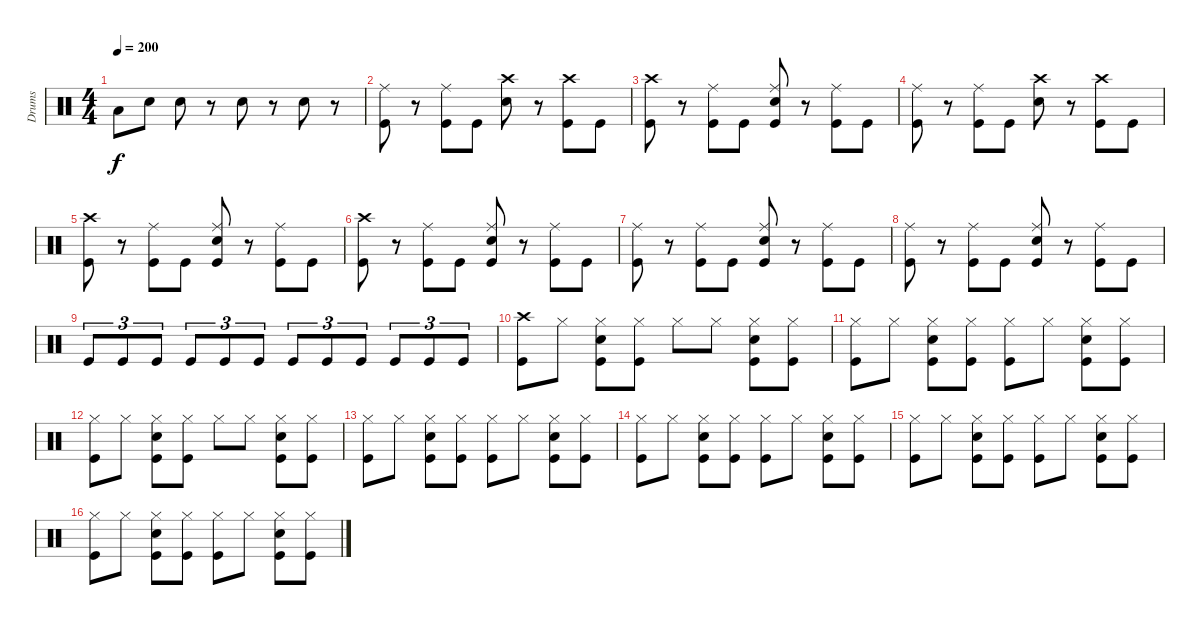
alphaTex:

\track ("Drums" "Drums") {instrument percussion}
\staff {score}
\articulation defaults
\ts (4 4)
\tempo 200
\clef neutral
\ks c "Low Tom (hit)".8{dy f} "Snare (hit) 2".8 "Snare (hit) 2".8
r.8 "Snare (hit) 2".8 r.8 "Snare (hit) 2".8 r.8 |
("Ride (middle)" "Kick (hit)").8 r.8 ("Ride (middle)" "Kick (hit)").8 "Kick (hit)".8 ("Crash high (hit)" "Snare (hit) 2").8 r.8 ("Crash high (hit)" "Kick (hit)").8 "Kick (hit)".8 |
("Crash high (hit)" "Kick (hit)").8 r.8 ("Ride (middle)" "Kick (hit)").8 "Kick (hit)".8 ("Ride (middle)" "Snare (hit) 2" "Kick (hit)").8 r.8 ("Ride (middle)" "Kick (hit)").8 "Kick (hit)".8 |
("Ride (middle)" "Kick (hit)").8 r.8 ("Ride (middle)" "Kick (hit)").8 "Kick (hit)".8 ("Crash high (hit)" "Snare (hit) 2").8 r.8 ("Crash high (hit)" "Kick (hit)").8 "Kick (hit)".8 |
("Crash high (hit)" "Kick (hit)").8 r.8 ("Ride (middle)" "Kick (hit)").8 "Kick (hit)".8 ("Ride (middle)" "Snare (hit) 2" "Kick (hit)").8 r.8 ("Ride (middle)" "Kick (hit)").8 "Kick (hit)".8 |
("Crash high (hit)" "Kick (hit)").8 r.8 ("Ride (middle)" "Kick (hit)").8 "Kick (hit)".8 ("Ride (middle)" "Snare (hit) 2" "Kick (hit)").8 r.8 ("Ride (middle)" "Kick (hit)").8 "Kick (hit)".8 |
("Ride (middle)" "Kick (hit)").8 r.8 ("Ride (middle)" "Kick (hit)").8 "Kick (hit)".8 ("Ride (middle)" "Snare (hit) 2" "Kick (hit)").8 r.8 ("Ride (middle)" "Kick (hit)").8 "Kick (hit)".8 |
("Ride (middle)" "Kick (hit)").8 r.8 ("Ride (middle)" "Kick (hit)").8 "Kick (hit)".8 ("Ride (middle)" "Snare (hit) 2" "Kick (hit)").8 r.8 ("Ride (middle)" "Kick (hit)").8 "Kick (hit)".8 |
"Kick (hit)".8{tu (3 2)} "Kick (hit)".8{tu (3 2)} "Kick (hit)".8{tu (3 2)} "Kick (hit)".8{tu (3 2)} "Kick (hit)".8{tu (3 2)} "Kick (hit)".8{tu (3 2)} "Kick (hit)".8{tu (3 2)} "Kick (hit)".8{tu (3 2)} "Kick (hit)".8{tu (3 2)} "Kick (hit)".8{tu (3 2)} "Kick (hit)".8{tu (3 2)} "Kick (hit)".8{tu (3 2)} |
("Crash high (hit)" "Kick (hit)").8 "Hi-Hat (closed)".8 ("Hi-Hat (closed)" "Snare (hit) 2" "Kick (hit)").8 ("Hi-Hat (closed)" "Kick (hit)").8 "Hi-Hat (closed)".8 "Hi-Hat (closed)".8 ("Hi-Hat (closed)" "Snare (hit) 2" "Kick (hit)").8 ("Hi-Hat (closed)" "Kick (hit)").8 |
("Hi-Hat (closed)" "Kick (hit)").8 "Hi-Hat (closed)".8 ("Hi-Hat (closed)" "Snare (hit) 2" "Kick (hit)").8 ("Hi-Hat (closed)" "Kick (hit)").8 ("Hi-Hat (closed)" "Kick (hit)").8 "Hi-Hat (closed)".8 ("Hi-Hat (closed)" "Snare (hit) 2" "Kick (hit)").8 ("Hi-Hat (closed)" "Kick (hit)").8 |
("Hi-Hat (closed)" "Kick (hit)").8 "Hi-Hat (closed)".8 ("Hi-Hat (closed)" "Snare (hit) 2" "Kick (hit)").8 ("Hi-Hat (closed)" "Kick (hit)").8 "Hi-Hat (closed)".8 "Hi-Hat (closed)".8 ("Hi-Hat (closed)" "Snare (hit) 2" "Kick (hit)").8 ("Hi-Hat (closed)" "Kick (hit)").8 |
("Hi-Hat (closed)" "Kick (hit)").8 "Hi-Hat (closed)".8 ("Hi-Hat (closed)" "Snare (hit) 2" "Kick (hit)").8 ("Hi-Hat (closed)" "Kick (hit)").8 ("Hi-Hat (closed)" "Kick (hit)").8 "Hi-Hat (closed)".8 ("Hi-Hat (closed)" "Snare (hit) 2" "Kick (hit)").8 ("Hi-Hat (closed)" "Kick (hit)").8 |
("Hi-Hat (closed)" "Kick (hit)").8 "Hi-Hat (closed)".8 ("Hi-Hat (closed)" "Snare (hit) 2" "Kick (hit)").8 ("Hi-Hat (closed)" "Kick (hit)").8 ("Hi-Hat (closed)" "Kick (hit)").8 "Hi-Hat (closed)".8 ("Hi-Hat (closed)" "Snare (hit) 2" "Kick (hit)").8 ("Hi-Hat (closed)" "Kick (hit)").8 |
("Hi-Hat (closed)" "Kick (hit)").8 "Hi-Hat (closed)".8 ("Hi-Hat (closed)" "Snare (hit) 2" "Kick (hit)").8 ("Hi-Hat (closed)" "Kick (hit)").8 ("Hi-Hat (closed)" "Kick (hit)").8 "Hi-Hat (closed)".8 ("Hi-Hat (closed)" "Snare (hit) 2" "Kick (hit)").8 ("Hi-Hat (closed)" "Kick (hit)").8 |
("Hi-Hat (closed)" "Kick (hit)").8 "Hi-Hat (closed)".8 ("Hi-Hat (closed)" "Snare (hit) 2" "Kick (hit)").8 ("Hi-Hat (closed)" "Kick (hit)").8 ("Hi-Hat (closed)" "Kick (hit)").8 "Hi-Hat (closed)".8 ("Hi-Hat (closed)" "Snare (hit) 2" "Kick (hit)").8 ("Hi-Hat (closed)" "Kick (hit)").8
